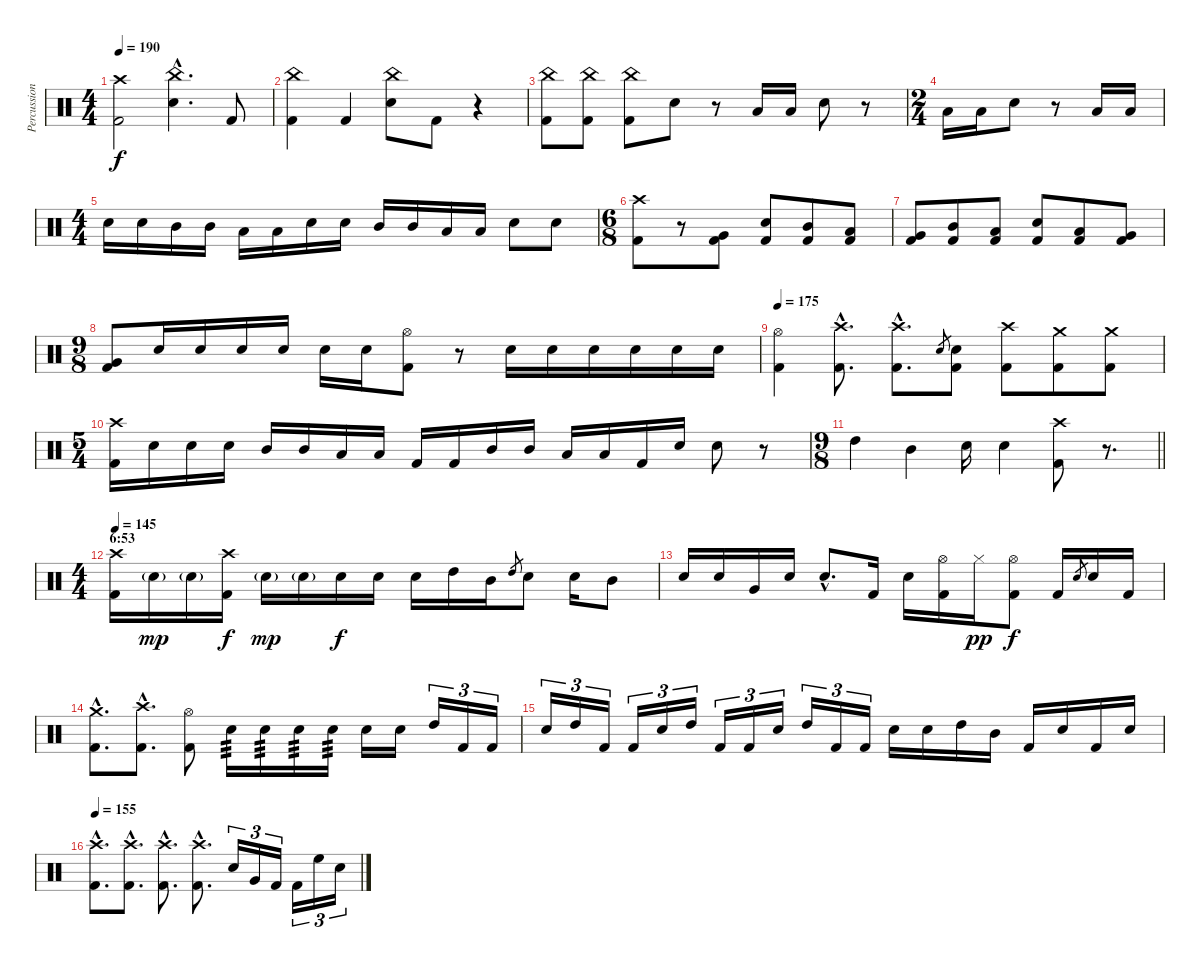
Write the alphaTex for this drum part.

\track ("Percussion" "Percussion") {instrument percussion}
\staff {score}
\articulation defaults
\ts (4 4)
\tempo 190
\clef neutral
\ks c
("Crash high (hit)" "Kick (hit) 2").2{dy f volume 13} ("China (hit)"{hac} "Electric Snare (hit)"{hac}).4{d} "Kick (hit) 2".8 |
("Kick (hit) 2" "China (hit)").4 "Kick (hit) 2".4 ("China (hit)" "Electric Snare (hit)").8 "Kick (hit) 2".8 r.4 |
("Kick (hit) 2" "China (hit)").8 ("Kick (hit) 2" "China (hit)").8 ("Kick (hit) 2" "China (hit)").8 "Electric Snare (hit)".8 r.8 "Low Tom (hit)".16 "Low Tom (hit)".16 "Electric Snare (hit)".8 r.8 |
\ts (2 4)
"Low Tom (hit)".16 "Low Tom (hit)".16 "Electric Snare (hit)".8 r.8 "Low Tom (hit)".16 "Low Tom (hit)".16 |
\ts (4 4)
"Electric Snare (hit)".16 "Electric Snare (hit)".16 "Mid Tom (hit)".16 "Mid Tom (hit)".16 "Low Tom (hit)".16 "Low Tom (hit)".16 "Electric Snare (hit)".16 "Electric Snare (hit)".16 "Mid Tom (hit)".16 "Mid Tom (hit)".16 "Low Tom (hit)".16 "Low Tom (hit)".16 "Electric Snare (hit)".8 "Electric Snare (hit)".8 |
\ts (6 8)
("Crash high (hit)" "Kick (hit) 2").8 r.8{volume 0} ("Kick (hit) 2" "Very Low Tom (hit)").8{volume 13} ("Kick (hit) 2" "Electric Snare (hit)").8 ("Kick (hit) 2" "Mid Tom (hit)").8 ("Kick (hit) 2" "Low Tom (hit)").8 |
("Kick (hit) 2" "Very Low Tom (hit)").8 ("Kick (hit) 2" "Mid Tom (hit)").8 ("Kick (hit) 2" "Low Tom (hit)").8 ("Kick (hit) 2" "Electric Snare (hit)").8 ("Kick (hit) 2" "Low Tom (hit)").8 ("Kick (hit) 2" "Very Low Tom (hit)").8 |
\ts (9 8)
("Kick (hit) 2" "Very Low Tom (hit)").8 "Electric Snare (hit)".16 "Electric Snare (hit)".16 "Electric Snare (hit)".16 "Electric Snare (hit)".16 "Electric Snare (hit)".16 "Electric Snare (hit)".16 ("Hi-Hat (open)" "Kick (hit) 2").8 r.8{volume 0} "Electric Snare (hit)".16{volume 13} "Electric Snare (hit)".16 "Electric Snare (hit)".16 "Electric Snare (hit)".16 "Electric Snare (hit)".16 "Electric Snare (hit)".16 |
\tempo 175
("Hi-Hat (open)" "Kick (hit) 2").4 ("Crash high (hit)"{hac} "Kick (hit) 2"{hac}).8{d} ("Crash high (hit)"{hac} "Kick (hit) 2"{hac}).8{d} "Electric Snare (hit)".8{gr} ("Kick (hit) 2" "Electric Snare (hit)").8 ("Kick (hit) 2" "Crash high (hit)").8 ("Kick (hit) 2" "Crash medium (hit)").8 ("Kick (hit) 2" "Crash medium (hit)").8 |
\ts (5 4)
("Crash high (hit)" "Kick (hit) 2").16 "Electric Snare (hit)".16 "Electric Snare (hit)".16 "Electric Snare (hit)".16 "Mid Tom (hit)".16 "Mid Tom (hit)".16 "Low Tom (hit)".16 "Low Tom (hit)".16 "Kick (hit) 2".16 "Kick (hit) 2".16 "Mid Tom (hit)".16 "Mid Tom (hit)".16 "Low Tom (hit)".16 "Low Tom (hit)".16 "Kick (hit) 2".16 "Electric Snare (hit)".16 "Electric Snare (hit)".8 r.8 |
\ts (9 8)
\barLineRight lightlight "High Tom (hit)".4 "Mid Tom (hit)".4 "Electric Snare (hit)".16 "Electric Snare (hit)".4
("Crash high (hit)" "Kick (hit) 2").8 r.8{d volume 0} |
\ts (4 4)
\section ("" "6:53")
\tempo 145
("Crash high (hit)" "Kick (hit) 2").16{volume 13} "Electric Snare (hit)"{g}.16{dy mp} "Electric Snare (hit)"{g}.16 ("Crash high (hit)" "Kick (hit) 2").16{dy f} "Electric Snare (hit)"{g}.16{dy mp} "Electric Snare (hit)"{g}.16 "Electric Snare (hit)".16{dy f} "Electric Snare (hit)".16 "Electric Snare (hit)".16 "High Tom (hit)".16 "Mid Tom (hit)".16 "High Tom (hit)".8{gr} "Electric Snare (hit)".8 "Electric Snare (hit)".16 "Mid Tom (hit)".8 |
"Electric Snare (hit)".16 "Electric Snare (hit)".16 "Very Low Tom (hit)".16 "Electric Snare (hit)".16 "Electric Snare (hit)"{hac}.8{d} "Kick (hit) 2".16 "Electric Snare (hit)".16 ("Hi-Hat (open)" "Kick (hit) 2").16 "Hi-Hat (closed)".16{dy pp} ("Hi-Hat (open)" "Kick (hit) 2").8{dy f} "Kick (hit) 2".16 "Electric Snare (hit)".8{gr} "Electric Snare (hit)".16 "Kick (hit) 2".16 |
("Crash medium (hit)"{hac} "Kick (hit) 2"{hac}).8{d} ("Crash high (hit)"{hac} "Kick (hit) 2"{hac}).8{d} ("Hi-Hat (open)" "Kick (hit) 2").8 "Electric Snare (hit)".16{tp 3} "Electric Snare (hit)".16{tp 3} "Electric Snare (hit)".16{tp 3} "Electric Snare (hit)".16{tp 3} "Electric Snare (hit)".16 "Electric Snare (hit)".16 "High Tom (hit)".16{tu (3 2)} "Kick (hit) 2".16{tu (3 2)} "Kick (hit) 2".16{tu (3 2)} |
"Electric Snare (hit)".16{tu (3 2)} "High Tom (hit)".16{tu (3 2)} "Kick (hit) 2".16{tu (3 2)} "Kick (hit) 2".16{tu (3 2)} "Electric Snare (hit)".16{tu (3 2)} "High Tom (hit)".16{tu (3 2)} "Kick (hit) 2".16{tu (3 2)} "Kick (hit) 2".16{tu (3 2)} "Electric Snare (hit)".16{tu (3 2)} "High Tom (hit)".16{tu (3 2)} "Kick (hit) 2".16{tu (3 2)} "Kick (hit) 2".16{tu (3 2)} "Electric Snare (hit)".16 "Electric Snare (hit)".16 "High Tom (hit)".16 "Mid Tom (hit)".16 "Kick (hit) 2".16 "Electric Snare (hit)".16 "Kick (hit) 2".16 "Electric Snare (hit)".16 |
\tempo 155
("Crash high (hit)"{hac} "Kick (hit) 2"{hac}).8{d} ("Kick (hit) 2"{hac} "Crash high (hit)"{hac}).8{d} ("Kick (hit) 2"{hac} "Crash high (hit)"{hac}).8{d} ("Kick (hit) 2"{hac} "Crash high (hit)"{hac}).8{d} "Electric Snare (hit)".16{tu (3 2)} "Very Low Tom (hit)".16{tu (3 2)} "Kick (hit) 2".16{tu (3 2)} "Kick (hit) 2".16{tu (3 2)} "High Floor Tom (hit)".16{tu (3 2)} "Electric Snare (hit)".16{tu (3 2)}
